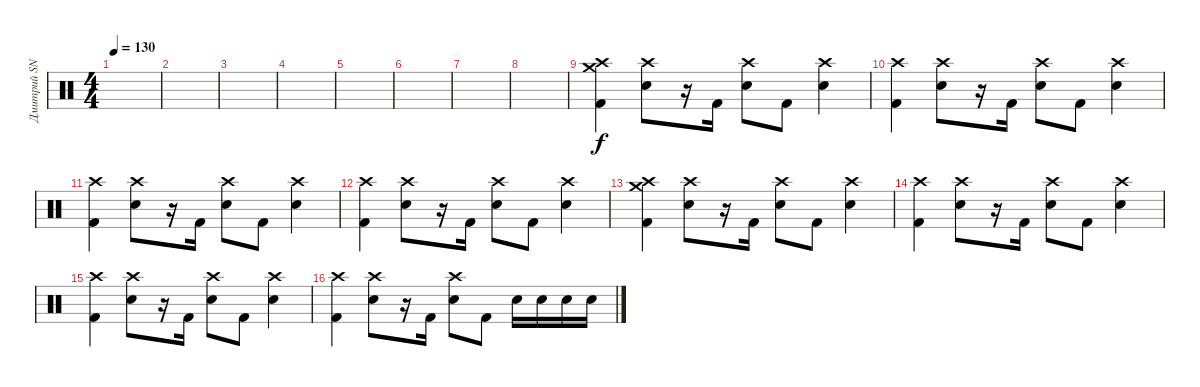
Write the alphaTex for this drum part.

\track ("Дмитрий SNAKE Хакимов" "Дмитрий SN") {instrument percussion}
\staff {score}
\articulation defaults
\ts (4 4)
\tempo 130
\clef neutral
\ks c
|
|
|
|
|
|
|
|
("Crash high (hit)" "Crash medium (hit)" "Kick (hit) 2").4 ("Crash high (hit)" "Snare (hit) 2").8 r.16 "Kick (hit) 2".16 ("Crash high (hit)" "Snare (hit) 2").8 "Kick (hit) 2".8 ("Crash high (hit)" "Snare (hit) 2").4 |
("Crash high (hit)" "Kick (hit) 2").4 ("Crash high (hit)" "Snare (hit) 2").8 r.16 "Kick (hit) 2".16 ("Crash high (hit)" "Snare (hit) 2").8 "Kick (hit) 2".8 ("Crash high (hit)" "Snare (hit) 2").4 |
("Crash high (hit)" "Kick (hit) 2").4 ("Crash high (hit)" "Snare (hit) 2").8 r.16 "Kick (hit) 2".16 ("Crash high (hit)" "Snare (hit) 2").8 "Kick (hit) 2".8 ("Crash high (hit)" "Snare (hit) 2").4 |
("Crash high (hit)" "Kick (hit) 2").4 ("Crash high (hit)" "Snare (hit) 2").8 r.16 "Kick (hit) 2".16 ("Crash high (hit)" "Snare (hit) 2").8 "Kick (hit) 2".8 ("Crash high (hit)" "Snare (hit) 2").4 |
("Crash high (hit)" "Crash medium (hit)" "Kick (hit) 2").4 ("Crash high (hit)" "Snare (hit) 2").8 r.16 "Kick (hit) 2".16 ("Crash high (hit)" "Snare (hit) 2").8 "Kick (hit) 2".8 ("Crash high (hit)" "Snare (hit) 2").4 |
("Crash high (hit)" "Kick (hit) 2").4 ("Crash high (hit)" "Snare (hit) 2").8 r.16 "Kick (hit) 2".16 ("Crash high (hit)" "Snare (hit) 2").8 "Kick (hit) 2".8 ("Crash high (hit)" "Snare (hit) 2").4 |
("Crash high (hit)" "Kick (hit) 2").4 ("Crash high (hit)" "Snare (hit) 2").8 r.16 "Kick (hit) 2".16 ("Crash high (hit)" "Snare (hit) 2").8 "Kick (hit) 2".8 ("Crash high (hit)" "Snare (hit) 2").4 |
("Crash high (hit)" "Kick (hit) 2").4 ("Crash high (hit)" "Snare (hit) 2").8 r.16 "Kick (hit) 2".16 ("Crash high (hit)" "Snare (hit) 2").8 "Kick (hit) 2".8 "Snare (hit) 2".16 "Snare (hit) 2".16 "Snare (hit) 2".16 "Snare (hit) 2".16
